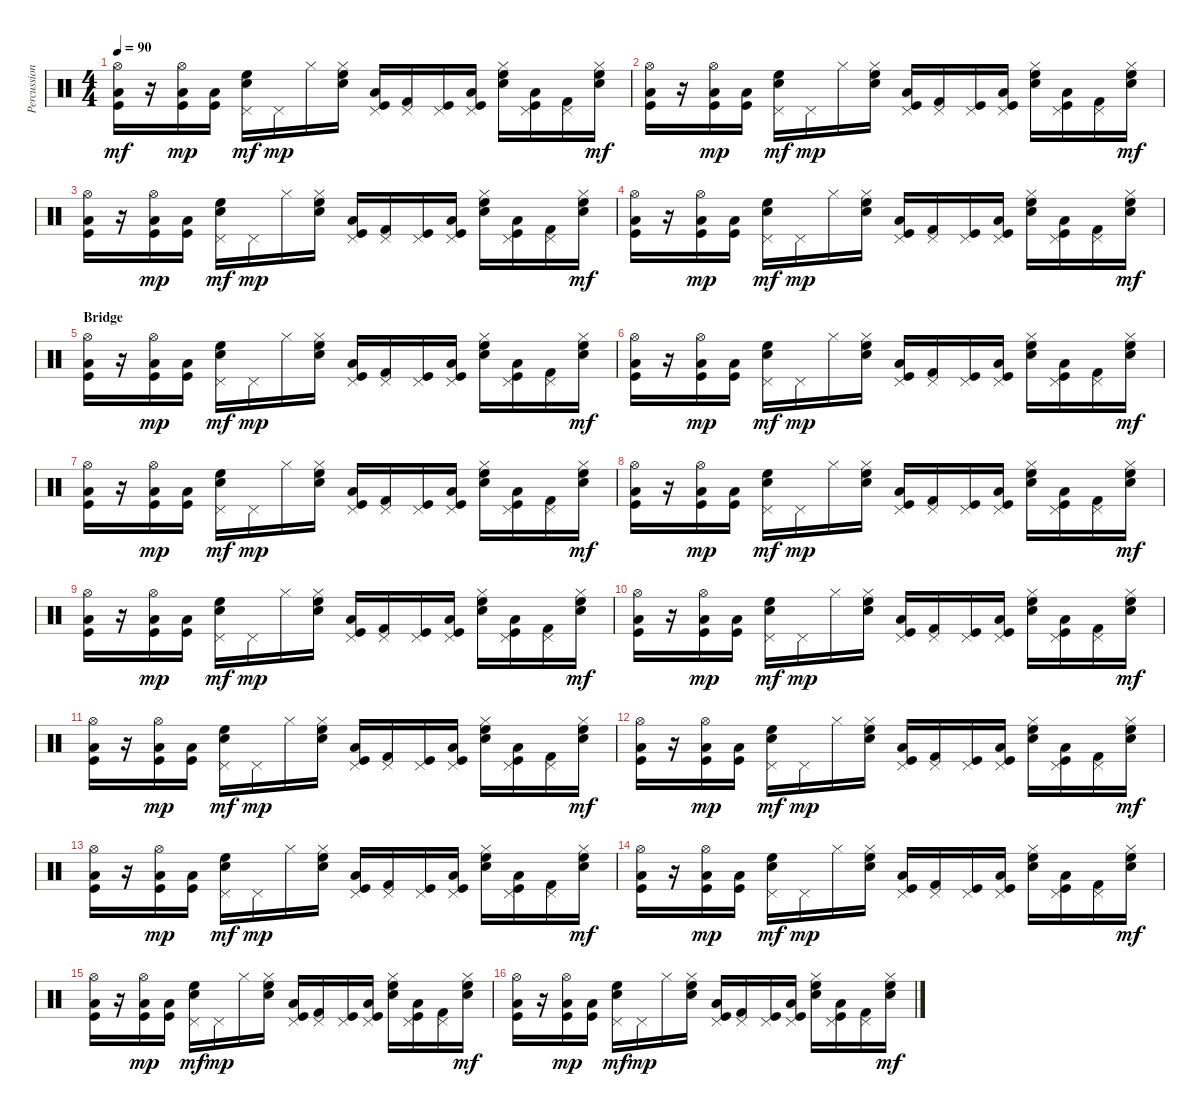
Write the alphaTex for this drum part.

\track ("Percussion" "Percussion") {instrument percussion}
\staff {score}
\articulation defaults
\ts (4 4)
\tempo 90
\clef neutral
\ks c
("Kick (hit)" "Low Tom (hit)" "Hi-Hat (open)").16{dy mf} r.16 ("Kick (hit)" "Low Tom (hit)" "Hi-Hat (open)").16{dy mp} ("Kick (hit)" "Low Tom (hit)").16 ("Snare (hit) 2" "High Floor Tom (hit)" "Pedal Hi-Hat (hit)").16{dy mf} "Pedal Hi-Hat (hit)".16{dy mp} "Hi-Hat (closed)".16 ("Snare (hit) 2" "High Floor Tom (hit)" "Hi-Hat (closed)").16 ("Kick (hit)" "Low Tom (hit)" "Pedal Hi-Hat (hit)").16 ("Kick (hit) 2" "Pedal Hi-Hat (hit)").16 ("Kick (hit)" "Pedal Hi-Hat (hit)").16 ("Kick (hit)" "Low Tom (hit)" "Pedal Hi-Hat (hit)").16 ("Snare (hit) 2" "High Floor Tom (hit)" "Hi-Hat (closed)").16 ("Kick (hit)" "Low Tom (hit)" "Pedal Hi-Hat (hit)").16 ("Kick (hit) 2" "Pedal Hi-Hat (hit)").16 ("Snare (hit) 2" "High Floor Tom (hit)" "Hi-Hat (closed)").16{dy mf} |
("Kick (hit)" "Low Tom (hit)" "Hi-Hat (open)").16 r.16 ("Kick (hit)" "Low Tom (hit)" "Hi-Hat (open)").16{dy mp} ("Kick (hit)" "Low Tom (hit)").16 ("Snare (hit) 2" "High Floor Tom (hit)" "Pedal Hi-Hat (hit)").16{dy mf} "Pedal Hi-Hat (hit)".16{dy mp} "Hi-Hat (closed)".16 ("Snare (hit) 2" "High Floor Tom (hit)" "Hi-Hat (closed)").16 ("Kick (hit)" "Low Tom (hit)" "Pedal Hi-Hat (hit)").16 ("Kick (hit) 2" "Pedal Hi-Hat (hit)").16 ("Kick (hit)" "Pedal Hi-Hat (hit)").16 ("Kick (hit)" "Low Tom (hit)" "Pedal Hi-Hat (hit)").16 ("Snare (hit) 2" "High Floor Tom (hit)" "Hi-Hat (closed)").16 ("Kick (hit)" "Low Tom (hit)" "Pedal Hi-Hat (hit)").16 ("Kick (hit) 2" "Pedal Hi-Hat (hit)").16 ("Snare (hit) 2" "High Floor Tom (hit)" "Hi-Hat (closed)").16{dy mf} |
("Kick (hit)" "Low Tom (hit)" "Hi-Hat (open)").16 r.16 ("Kick (hit)" "Low Tom (hit)" "Hi-Hat (open)").16{dy mp} ("Kick (hit)" "Low Tom (hit)").16 ("Snare (hit) 2" "High Floor Tom (hit)" "Pedal Hi-Hat (hit)").16{dy mf} "Pedal Hi-Hat (hit)".16{dy mp} "Hi-Hat (closed)".16 ("Snare (hit) 2" "High Floor Tom (hit)" "Hi-Hat (closed)").16 ("Kick (hit)" "Low Tom (hit)" "Pedal Hi-Hat (hit)").16 ("Kick (hit) 2" "Pedal Hi-Hat (hit)").16 ("Kick (hit)" "Pedal Hi-Hat (hit)").16 ("Kick (hit)" "Low Tom (hit)" "Pedal Hi-Hat (hit)").16 ("Snare (hit) 2" "High Floor Tom (hit)" "Hi-Hat (closed)").16 ("Kick (hit)" "Low Tom (hit)" "Pedal Hi-Hat (hit)").16 ("Kick (hit) 2" "Pedal Hi-Hat (hit)").16 ("Snare (hit) 2" "High Floor Tom (hit)" "Hi-Hat (closed)").16{dy mf} |
("Kick (hit)" "Low Tom (hit)" "Hi-Hat (open)").16 r.16 ("Kick (hit)" "Low Tom (hit)" "Hi-Hat (open)").16{dy mp} ("Kick (hit)" "Low Tom (hit)").16 ("Snare (hit) 2" "High Floor Tom (hit)" "Pedal Hi-Hat (hit)").16{dy mf} "Pedal Hi-Hat (hit)".16{dy mp} "Hi-Hat (closed)".16 ("Snare (hit) 2" "High Floor Tom (hit)" "Hi-Hat (closed)").16 ("Kick (hit)" "Low Tom (hit)" "Pedal Hi-Hat (hit)").16 ("Kick (hit) 2" "Pedal Hi-Hat (hit)").16 ("Kick (hit)" "Pedal Hi-Hat (hit)").16 ("Kick (hit)" "Low Tom (hit)" "Pedal Hi-Hat (hit)").16 ("Snare (hit) 2" "High Floor Tom (hit)" "Hi-Hat (closed)").16 ("Kick (hit)" "Low Tom (hit)" "Pedal Hi-Hat (hit)").16 ("Kick (hit) 2" "Pedal Hi-Hat (hit)").16 ("Snare (hit) 2" "High Floor Tom (hit)" "Hi-Hat (closed)").16{dy mf} |
\section ("" "Bridge")
("Kick (hit)" "Low Tom (hit)" "Hi-Hat (open)").16 r.16 ("Kick (hit)" "Low Tom (hit)" "Hi-Hat (open)").16{dy mp} ("Kick (hit)" "Low Tom (hit)").16 ("Snare (hit) 2" "High Floor Tom (hit)" "Pedal Hi-Hat (hit)").16{dy mf} "Pedal Hi-Hat (hit)".16{dy mp} "Hi-Hat (closed)".16 ("Snare (hit) 2" "High Floor Tom (hit)" "Hi-Hat (closed)").16 ("Kick (hit)" "Low Tom (hit)" "Pedal Hi-Hat (hit)").16 ("Kick (hit) 2" "Pedal Hi-Hat (hit)").16 ("Kick (hit)" "Pedal Hi-Hat (hit)").16 ("Kick (hit)" "Low Tom (hit)" "Pedal Hi-Hat (hit)").16 ("Snare (hit) 2" "High Floor Tom (hit)" "Hi-Hat (closed)").16 ("Kick (hit)" "Low Tom (hit)" "Pedal Hi-Hat (hit)").16 ("Kick (hit) 2" "Pedal Hi-Hat (hit)").16 ("Snare (hit) 2" "High Floor Tom (hit)" "Hi-Hat (closed)").16{dy mf} |
("Kick (hit)" "Low Tom (hit)" "Hi-Hat (open)").16 r.16 ("Kick (hit)" "Low Tom (hit)" "Hi-Hat (open)").16{dy mp} ("Kick (hit)" "Low Tom (hit)").16 ("Snare (hit) 2" "High Floor Tom (hit)" "Pedal Hi-Hat (hit)").16{dy mf} "Pedal Hi-Hat (hit)".16{dy mp} "Hi-Hat (closed)".16 ("Snare (hit) 2" "High Floor Tom (hit)" "Hi-Hat (closed)").16 ("Kick (hit)" "Low Tom (hit)" "Pedal Hi-Hat (hit)").16 ("Kick (hit) 2" "Pedal Hi-Hat (hit)").16 ("Kick (hit)" "Pedal Hi-Hat (hit)").16 ("Kick (hit)" "Low Tom (hit)" "Pedal Hi-Hat (hit)").16 ("Snare (hit) 2" "High Floor Tom (hit)" "Hi-Hat (closed)").16 ("Kick (hit)" "Low Tom (hit)" "Pedal Hi-Hat (hit)").16 ("Kick (hit) 2" "Pedal Hi-Hat (hit)").16 ("Snare (hit) 2" "High Floor Tom (hit)" "Hi-Hat (closed)").16{dy mf} |
("Kick (hit)" "Low Tom (hit)" "Hi-Hat (open)").16 r.16 ("Kick (hit)" "Low Tom (hit)" "Hi-Hat (open)").16{dy mp} ("Kick (hit)" "Low Tom (hit)").16 ("Snare (hit) 2" "High Floor Tom (hit)" "Pedal Hi-Hat (hit)").16{dy mf} "Pedal Hi-Hat (hit)".16{dy mp} "Hi-Hat (closed)".16 ("Snare (hit) 2" "High Floor Tom (hit)" "Hi-Hat (closed)").16 ("Kick (hit)" "Low Tom (hit)" "Pedal Hi-Hat (hit)").16 ("Kick (hit) 2" "Pedal Hi-Hat (hit)").16 ("Kick (hit)" "Pedal Hi-Hat (hit)").16 ("Kick (hit)" "Low Tom (hit)" "Pedal Hi-Hat (hit)").16 ("Snare (hit) 2" "High Floor Tom (hit)" "Hi-Hat (closed)").16 ("Kick (hit)" "Low Tom (hit)" "Pedal Hi-Hat (hit)").16 ("Kick (hit) 2" "Pedal Hi-Hat (hit)").16 ("Snare (hit) 2" "High Floor Tom (hit)" "Hi-Hat (closed)").16{dy mf} |
("Kick (hit)" "Low Tom (hit)" "Hi-Hat (open)").16 r.16 ("Kick (hit)" "Low Tom (hit)" "Hi-Hat (open)").16{dy mp} ("Kick (hit)" "Low Tom (hit)").16 ("Snare (hit) 2" "High Floor Tom (hit)" "Pedal Hi-Hat (hit)").16{dy mf} "Pedal Hi-Hat (hit)".16{dy mp} "Hi-Hat (closed)".16 ("Snare (hit) 2" "High Floor Tom (hit)" "Hi-Hat (closed)").16 ("Kick (hit)" "Low Tom (hit)" "Pedal Hi-Hat (hit)").16 ("Kick (hit) 2" "Pedal Hi-Hat (hit)").16 ("Kick (hit)" "Pedal Hi-Hat (hit)").16 ("Kick (hit)" "Low Tom (hit)" "Pedal Hi-Hat (hit)").16 ("Snare (hit) 2" "High Floor Tom (hit)" "Hi-Hat (closed)").16 ("Kick (hit)" "Low Tom (hit)" "Pedal Hi-Hat (hit)").16 ("Kick (hit) 2" "Pedal Hi-Hat (hit)").16 ("Snare (hit) 2" "High Floor Tom (hit)" "Hi-Hat (closed)").16{dy mf} |
("Kick (hit)" "Low Tom (hit)" "Hi-Hat (open)").16 r.16 ("Kick (hit)" "Low Tom (hit)" "Hi-Hat (open)").16{dy mp} ("Kick (hit)" "Low Tom (hit)").16 ("Snare (hit) 2" "High Floor Tom (hit)" "Pedal Hi-Hat (hit)").16{dy mf} "Pedal Hi-Hat (hit)".16{dy mp} "Hi-Hat (closed)".16 ("Snare (hit) 2" "High Floor Tom (hit)" "Hi-Hat (closed)").16 ("Kick (hit)" "Low Tom (hit)" "Pedal Hi-Hat (hit)").16 ("Kick (hit) 2" "Pedal Hi-Hat (hit)").16 ("Kick (hit)" "Pedal Hi-Hat (hit)").16 ("Kick (hit)" "Low Tom (hit)" "Pedal Hi-Hat (hit)").16 ("Snare (hit) 2" "High Floor Tom (hit)" "Hi-Hat (closed)").16 ("Kick (hit)" "Low Tom (hit)" "Pedal Hi-Hat (hit)").16 ("Kick (hit) 2" "Pedal Hi-Hat (hit)").16 ("Snare (hit) 2" "High Floor Tom (hit)" "Hi-Hat (closed)").16{dy mf} |
("Kick (hit)" "Low Tom (hit)" "Hi-Hat (open)").16 r.16 ("Kick (hit)" "Low Tom (hit)" "Hi-Hat (open)").16{dy mp} ("Kick (hit)" "Low Tom (hit)").16 ("Snare (hit) 2" "High Floor Tom (hit)" "Pedal Hi-Hat (hit)").16{dy mf} "Pedal Hi-Hat (hit)".16{dy mp} "Hi-Hat (closed)".16 ("Snare (hit) 2" "High Floor Tom (hit)" "Hi-Hat (closed)").16 ("Kick (hit)" "Low Tom (hit)" "Pedal Hi-Hat (hit)").16 ("Kick (hit) 2" "Pedal Hi-Hat (hit)").16 ("Kick (hit)" "Pedal Hi-Hat (hit)").16 ("Kick (hit)" "Low Tom (hit)" "Pedal Hi-Hat (hit)").16 ("Snare (hit) 2" "High Floor Tom (hit)" "Hi-Hat (closed)").16 ("Kick (hit)" "Low Tom (hit)" "Pedal Hi-Hat (hit)").16 ("Kick (hit) 2" "Pedal Hi-Hat (hit)").16 ("Snare (hit) 2" "High Floor Tom (hit)" "Hi-Hat (closed)").16{dy mf} |
("Kick (hit)" "Low Tom (hit)" "Hi-Hat (open)").16 r.16 ("Kick (hit)" "Low Tom (hit)" "Hi-Hat (open)").16{dy mp} ("Kick (hit)" "Low Tom (hit)").16 ("Snare (hit) 2" "High Floor Tom (hit)" "Pedal Hi-Hat (hit)").16{dy mf} "Pedal Hi-Hat (hit)".16{dy mp} "Hi-Hat (closed)".16 ("Snare (hit) 2" "High Floor Tom (hit)" "Hi-Hat (closed)").16 ("Kick (hit)" "Low Tom (hit)" "Pedal Hi-Hat (hit)").16 ("Kick (hit) 2" "Pedal Hi-Hat (hit)").16 ("Kick (hit)" "Pedal Hi-Hat (hit)").16 ("Kick (hit)" "Low Tom (hit)" "Pedal Hi-Hat (hit)").16 ("Snare (hit) 2" "High Floor Tom (hit)" "Hi-Hat (closed)").16 ("Kick (hit)" "Low Tom (hit)" "Pedal Hi-Hat (hit)").16 ("Kick (hit) 2" "Pedal Hi-Hat (hit)").16 ("Snare (hit) 2" "High Floor Tom (hit)" "Hi-Hat (closed)").16{dy mf} |
("Kick (hit)" "Low Tom (hit)" "Hi-Hat (open)").16 r.16 ("Kick (hit)" "Low Tom (hit)" "Hi-Hat (open)").16{dy mp} ("Kick (hit)" "Low Tom (hit)").16 ("Snare (hit) 2" "High Floor Tom (hit)" "Pedal Hi-Hat (hit)").16{dy mf} "Pedal Hi-Hat (hit)".16{dy mp} "Hi-Hat (closed)".16 ("Snare (hit) 2" "High Floor Tom (hit)" "Hi-Hat (closed)").16 ("Kick (hit)" "Low Tom (hit)" "Pedal Hi-Hat (hit)").16 ("Kick (hit) 2" "Pedal Hi-Hat (hit)").16 ("Kick (hit)" "Pedal Hi-Hat (hit)").16 ("Kick (hit)" "Low Tom (hit)" "Pedal Hi-Hat (hit)").16 ("Snare (hit) 2" "High Floor Tom (hit)" "Hi-Hat (closed)").16 ("Kick (hit)" "Low Tom (hit)" "Pedal Hi-Hat (hit)").16 ("Kick (hit) 2" "Pedal Hi-Hat (hit)").16 ("Snare (hit) 2" "High Floor Tom (hit)" "Hi-Hat (closed)").16{dy mf} |
("Kick (hit)" "Low Tom (hit)" "Hi-Hat (open)").16 r.16 ("Kick (hit)" "Low Tom (hit)" "Hi-Hat (open)").16{dy mp} ("Kick (hit)" "Low Tom (hit)").16 ("Snare (hit) 2" "High Floor Tom (hit)" "Pedal Hi-Hat (hit)").16{dy mf} "Pedal Hi-Hat (hit)".16{dy mp} "Hi-Hat (closed)".16 ("Snare (hit) 2" "High Floor Tom (hit)" "Hi-Hat (closed)").16 ("Kick (hit)" "Low Tom (hit)" "Pedal Hi-Hat (hit)").16 ("Kick (hit) 2" "Pedal Hi-Hat (hit)").16 ("Kick (hit)" "Pedal Hi-Hat (hit)").16 ("Kick (hit)" "Low Tom (hit)" "Pedal Hi-Hat (hit)").16 ("Snare (hit) 2" "High Floor Tom (hit)" "Hi-Hat (closed)").16 ("Kick (hit)" "Low Tom (hit)" "Pedal Hi-Hat (hit)").16 ("Kick (hit) 2" "Pedal Hi-Hat (hit)").16 ("Snare (hit) 2" "High Floor Tom (hit)" "Hi-Hat (closed)").16{dy mf} |
("Kick (hit)" "Low Tom (hit)" "Hi-Hat (open)").16 r.16 ("Kick (hit)" "Low Tom (hit)" "Hi-Hat (open)").16{dy mp} ("Kick (hit)" "Low Tom (hit)").16 ("Snare (hit) 2" "High Floor Tom (hit)" "Pedal Hi-Hat (hit)").16{dy mf} "Pedal Hi-Hat (hit)".16{dy mp} "Hi-Hat (closed)".16 ("Snare (hit) 2" "High Floor Tom (hit)" "Hi-Hat (closed)").16 ("Kick (hit)" "Low Tom (hit)" "Pedal Hi-Hat (hit)").16 ("Kick (hit) 2" "Pedal Hi-Hat (hit)").16 ("Kick (hit)" "Pedal Hi-Hat (hit)").16 ("Kick (hit)" "Low Tom (hit)" "Pedal Hi-Hat (hit)").16 ("Snare (hit) 2" "High Floor Tom (hit)" "Hi-Hat (closed)").16 ("Kick (hit)" "Low Tom (hit)" "Pedal Hi-Hat (hit)").16 ("Kick (hit) 2" "Pedal Hi-Hat (hit)").16 ("Snare (hit) 2" "High Floor Tom (hit)" "Hi-Hat (closed)").16{dy mf} |
("Kick (hit)" "Low Tom (hit)" "Hi-Hat (open)").16 r.16 ("Kick (hit)" "Low Tom (hit)" "Hi-Hat (open)").16{dy mp} ("Kick (hit)" "Low Tom (hit)").16 ("Snare (hit) 2" "High Floor Tom (hit)" "Pedal Hi-Hat (hit)").16{dy mf} "Pedal Hi-Hat (hit)".16{dy mp} "Hi-Hat (closed)".16 ("Snare (hit) 2" "High Floor Tom (hit)" "Hi-Hat (closed)").16 ("Kick (hit)" "Low Tom (hit)" "Pedal Hi-Hat (hit)").16 ("Kick (hit) 2" "Pedal Hi-Hat (hit)").16 ("Kick (hit)" "Pedal Hi-Hat (hit)").16 ("Kick (hit)" "Low Tom (hit)" "Pedal Hi-Hat (hit)").16 ("Snare (hit) 2" "High Floor Tom (hit)" "Hi-Hat (closed)").16 ("Kick (hit)" "Low Tom (hit)" "Pedal Hi-Hat (hit)").16 ("Kick (hit) 2" "Pedal Hi-Hat (hit)").16 ("Snare (hit) 2" "High Floor Tom (hit)" "Hi-Hat (closed)").16{dy mf} |
("Kick (hit)" "Low Tom (hit)" "Hi-Hat (open)").16 r.16 ("Kick (hit)" "Low Tom (hit)" "Hi-Hat (open)").16{dy mp} ("Kick (hit)" "Low Tom (hit)").16 ("Snare (hit) 2" "High Floor Tom (hit)" "Pedal Hi-Hat (hit)").16{dy mf} "Pedal Hi-Hat (hit)".16{dy mp} "Hi-Hat (closed)".16 ("Snare (hit) 2" "High Floor Tom (hit)" "Hi-Hat (closed)").16 ("Kick (hit)" "Low Tom (hit)" "Pedal Hi-Hat (hit)").16 ("Kick (hit) 2" "Pedal Hi-Hat (hit)").16 ("Kick (hit)" "Pedal Hi-Hat (hit)").16 ("Kick (hit)" "Low Tom (hit)" "Pedal Hi-Hat (hit)").16 ("Snare (hit) 2" "High Floor Tom (hit)" "Hi-Hat (closed)").16 ("Kick (hit)" "Low Tom (hit)" "Pedal Hi-Hat (hit)").16 ("Kick (hit) 2" "Pedal Hi-Hat (hit)").16 ("Snare (hit) 2" "High Floor Tom (hit)" "Hi-Hat (closed)").16{dy mf}
